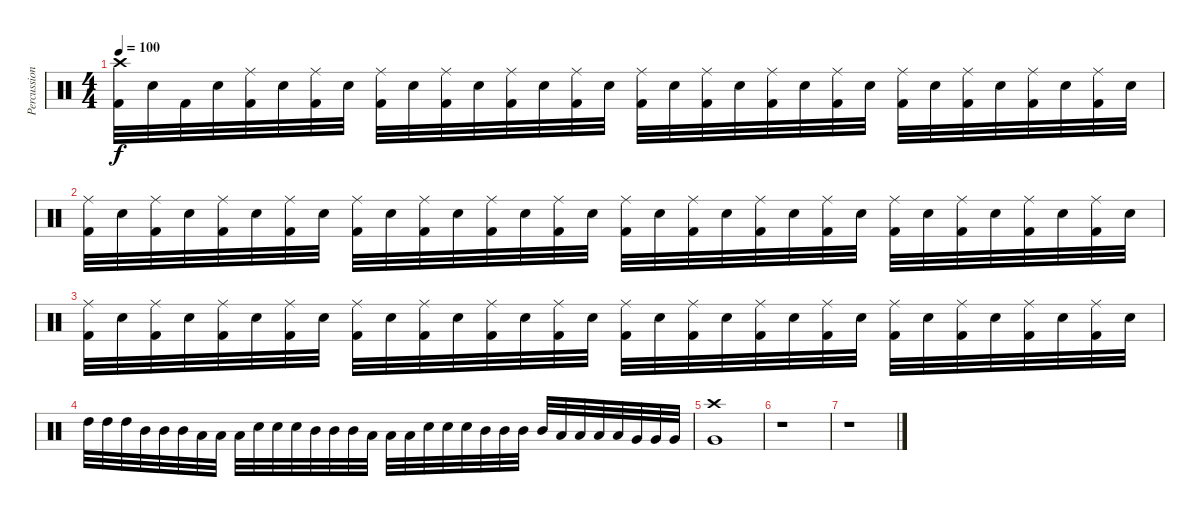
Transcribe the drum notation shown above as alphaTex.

\track ("Percussion" "Percussion") {instrument percussion}
\staff {score}
\articulation defaults
\ts (4 4)
\tempo 100
\clef neutral
\ks c
("Crash high (hit)" "Kick (hit) 2").32{dy f} "Snare (hit) 2".32 "Kick (hit) 2".32 "Snare (hit) 2".32 ("Ride (middle)" "Kick (hit) 2").32 "Snare (hit) 2".32 ("Ride (middle)" "Kick (hit) 2").32 "Snare (hit) 2".32 ("Ride (middle)" "Kick (hit) 2").32 "Snare (hit) 2".32 ("Ride (middle)" "Kick (hit) 2").32 "Snare (hit) 2".32 ("Ride (middle)" "Kick (hit) 2").32 "Snare (hit) 2".32 ("Ride (middle)" "Kick (hit) 2").32 "Snare (hit) 2".32 ("Ride (middle)" "Kick (hit) 2").32 "Snare (hit) 2".32 ("Ride (middle)" "Kick (hit) 2").32 "Snare (hit) 2".32 ("Ride (middle)" "Kick (hit) 2").32 "Snare (hit) 2".32 ("Ride (middle)" "Kick (hit) 2").32 "Snare (hit) 2".32 ("Ride (middle)" "Kick (hit) 2").32 "Snare (hit) 2".32 ("Ride (middle)" "Kick (hit) 2").32 "Snare (hit) 2".32 ("Ride (middle)" "Kick (hit) 2").32 "Snare (hit) 2".32 ("Ride (middle)" "Kick (hit) 2").32 "Snare (hit) 2".32 |
("Ride (middle)" "Kick (hit) 2").32 "Snare (hit) 2".32 ("Ride (middle)" "Kick (hit) 2").32 "Snare (hit) 2".32 ("Ride (middle)" "Kick (hit) 2").32 "Snare (hit) 2".32 ("Ride (middle)" "Kick (hit) 2").32 "Snare (hit) 2".32 ("Ride (middle)" "Kick (hit) 2").32 "Snare (hit) 2".32 ("Ride (middle)" "Kick (hit) 2").32 "Snare (hit) 2".32 ("Ride (middle)" "Kick (hit) 2").32 "Snare (hit) 2".32 ("Ride (middle)" "Kick (hit) 2").32 "Snare (hit) 2".32 ("Ride (middle)" "Kick (hit) 2").32 "Snare (hit) 2".32 ("Ride (middle)" "Kick (hit) 2").32 "Snare (hit) 2".32 ("Ride (middle)" "Kick (hit) 2").32 "Snare (hit) 2".32 ("Ride (middle)" "Kick (hit) 2").32 "Snare (hit) 2".32 ("Ride (middle)" "Kick (hit) 2").32 "Snare (hit) 2".32 ("Ride (middle)" "Kick (hit) 2").32 "Snare (hit) 2".32 ("Ride (middle)" "Kick (hit) 2").32 "Snare (hit) 2".32 ("Ride (middle)" "Kick (hit) 2").32 "Snare (hit) 2".32 |
("Ride (middle)" "Kick (hit) 2").32 "Snare (hit) 2".32 ("Ride (middle)" "Kick (hit) 2").32 "Snare (hit) 2".32 ("Ride (middle)" "Kick (hit) 2").32 "Snare (hit) 2".32 ("Ride (middle)" "Kick (hit) 2").32 "Snare (hit) 2".32 ("Ride (middle)" "Kick (hit) 2").32 "Snare (hit) 2".32 ("Ride (middle)" "Kick (hit) 2").32 "Snare (hit) 2".32 ("Ride (middle)" "Kick (hit) 2").32 "Snare (hit) 2".32 ("Ride (middle)" "Kick (hit) 2").32 "Snare (hit) 2".32 ("Ride (middle)" "Kick (hit) 2").32 "Snare (hit) 2".32 ("Ride (middle)" "Kick (hit) 2").32 "Snare (hit) 2".32 ("Ride (middle)" "Kick (hit) 2").32 "Snare (hit) 2".32 ("Ride (middle)" "Kick (hit) 2").32 "Snare (hit) 2".32 ("Ride (middle)" "Kick (hit) 2").32 "Snare (hit) 2".32 ("Ride (middle)" "Kick (hit) 2").32 "Snare (hit) 2".32 ("Ride (middle)" "Kick (hit) 2").32 "Snare (hit) 2".32 ("Ride (middle)" "Kick (hit) 2").32 "Snare (hit) 2".32 |
"High Tom (hit)".32 "High Tom (hit)".32 "High Tom (hit)".32 "Mid Tom (hit)".32 "Mid Tom (hit)".32 "Mid Tom (hit)".32 "Low Tom (hit)".32 "Low Tom (hit)".32 "Low Tom (hit)".32 "Snare (hit) 2".32 "Snare (hit) 2".32 "Snare (hit) 2".32 "Mid Tom (hit)".32 "Mid Tom (hit)".32 "Mid Tom (hit)".32 "Low Tom (hit)".32 "Low Tom (hit)".32 "Low Tom (hit)".32 "Snare (hit) 2".32 "Snare (hit) 2".32 "Snare (hit) 2".32 "Mid Tom (hit)".32 "Mid Tom (hit)".32 "Mid Tom (hit)".32 "Mid Tom (hit)".32 "Low Tom (hit)".32 "Low Tom (hit)".32 "Low Tom (hit)".32 "Low Tom (hit)".32 "Very Low Tom (hit)".32 "Very Low Tom (hit)".32 "Very Low Tom (hit)".32 |
("Crash high (hit)" "Very Low Tom (hit)").1 |
r.1 |
r.1
